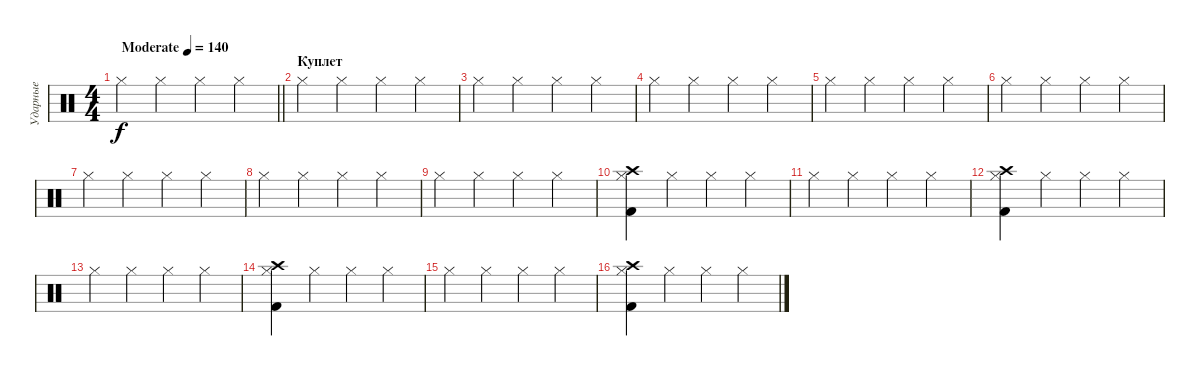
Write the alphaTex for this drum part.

\track ("Ударные" "Ударные") {instrument percussion}
\staff {score}
\articulation defaults
\ts (4 4)
\tempo (140 "Moderate")
\clef neutral
\barLineRight lightlight
\ks c "Hi-Hat (closed)".4{dy f volume 9} "Hi-Hat (closed)".4 "Hi-Hat (closed)".4 "Hi-Hat (closed)".4
|
\section ("" "Куплет")
"Hi-Hat (closed)".4{volume 9} "Hi-Hat (closed)".4 "Hi-Hat (closed)".4 "Hi-Hat (closed)".4 |
"Hi-Hat (closed)".4{volume 9} "Hi-Hat (closed)".4 "Hi-Hat (closed)".4 "Hi-Hat (closed)".4 |
"Hi-Hat (closed)".4{volume 9} "Hi-Hat (closed)".4 "Hi-Hat (closed)".4 "Hi-Hat (closed)".4 |
"Hi-Hat (closed)".4{volume 9} "Hi-Hat (closed)".4 "Hi-Hat (closed)".4 "Hi-Hat (closed)".4 |
"Hi-Hat (closed)".4{volume 9} "Hi-Hat (closed)".4 "Hi-Hat (closed)".4 "Hi-Hat (closed)".4 |
"Hi-Hat (closed)".4{volume 9} "Hi-Hat (closed)".4 "Hi-Hat (closed)".4 "Hi-Hat (closed)".4 |
"Hi-Hat (closed)".4{volume 9} "Hi-Hat (closed)".4 "Hi-Hat (closed)".4 "Hi-Hat (closed)".4 |
"Hi-Hat (closed)".4{volume 9} "Hi-Hat (closed)".4 "Hi-Hat (closed)".4 "Hi-Hat (closed)".4 |
("Crash high (hit)" "Kick (hit) 2" "Hi-Hat (closed)").4{volume 14} "Hi-Hat (closed)".4 "Hi-Hat (closed)".4 "Hi-Hat (closed)".4 |
"Hi-Hat (closed)".4 "Hi-Hat (closed)".4 "Hi-Hat (closed)".4 "Hi-Hat (closed)".4 |
("Crash high (hit)" "Kick (hit) 2" "Hi-Hat (closed)").4 "Hi-Hat (closed)".4 "Hi-Hat (closed)".4 "Hi-Hat (closed)".4 |
"Hi-Hat (closed)".4 "Hi-Hat (closed)".4 "Hi-Hat (closed)".4 "Hi-Hat (closed)".4 |
("Crash high (hit)" "Kick (hit) 2" "Hi-Hat (closed)").4 "Hi-Hat (closed)".4 "Hi-Hat (closed)".4 "Hi-Hat (closed)".4 |
"Hi-Hat (closed)".4 "Hi-Hat (closed)".4 "Hi-Hat (closed)".4 "Hi-Hat (closed)".4 |
("Crash high (hit)" "Kick (hit) 2" "Hi-Hat (closed)").4 "Hi-Hat (closed)".4 "Hi-Hat (closed)".4 "Hi-Hat (closed)".4
